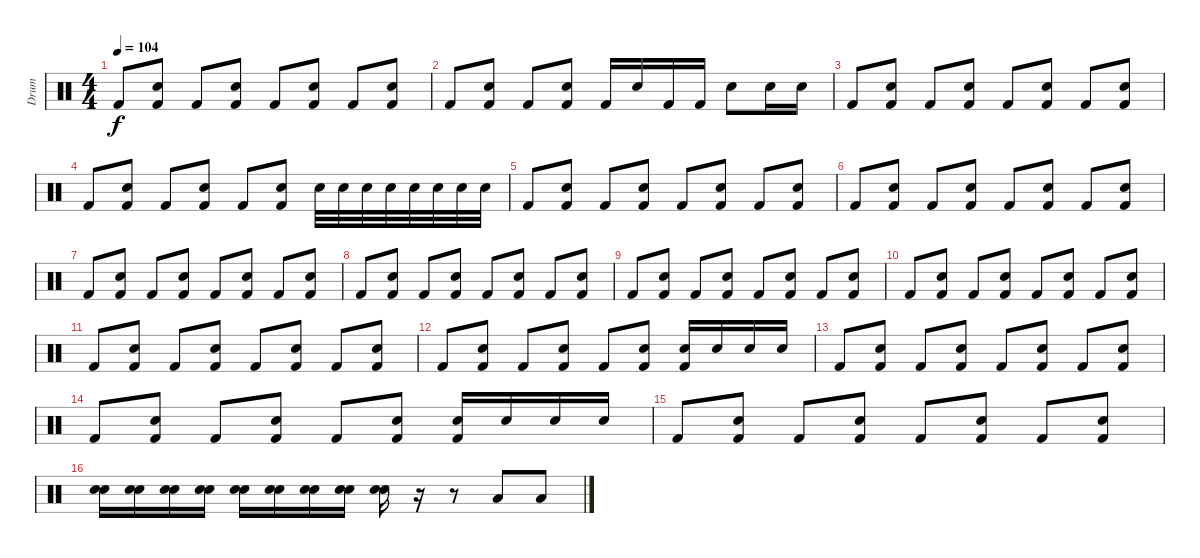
\track ("Drum" "Drum") {instrument percussion}
\staff {score}
\articulation defaults
\ts (4 4)
\tempo 104
\clef neutral
\ks c "Kick (hit) 2".8{dy f}
("Snare (hit) 2" "Kick (hit) 2").8 "Kick (hit) 2".8 ("Snare (hit) 2" "Kick (hit) 2").8 "Kick (hit) 2".8 ("Snare (hit) 2" "Kick (hit) 2").8 "Kick (hit) 2".8 ("Snare (hit) 2" "Kick (hit) 2").8 |
"Kick (hit) 2".8 ("Snare (hit) 2" "Kick (hit) 2").8 "Kick (hit) 2".8 ("Snare (hit) 2" "Kick (hit) 2").8 "Kick (hit) 2".16 "Snare (hit) 2".16 "Kick (hit) 2".16 "Kick (hit) 2".16 "Snare (hit) 2".8 "Snare (hit) 2".16 "Snare (hit) 2".16 |
"Kick (hit) 2".8 ("Snare (hit) 2" "Kick (hit) 2").8 "Kick (hit) 2".8 ("Snare (hit) 2" "Kick (hit) 2").8 "Kick (hit) 2".8 ("Snare (hit) 2" "Kick (hit) 2").8 "Kick (hit) 2".8 ("Snare (hit) 2" "Kick (hit) 2").8 |
"Kick (hit) 2".8 ("Snare (hit) 2" "Kick (hit) 2").8 "Kick (hit) 2".8 ("Snare (hit) 2" "Kick (hit) 2").8 "Kick (hit) 2".8 ("Snare (hit) 2" "Kick (hit) 2").8 "Snare (hit) 2".32 "Snare (hit) 2".32 "Snare (hit) 2".32 "Snare (hit) 2".32 "Snare (hit) 2".32 "Snare (hit) 2".32 "Snare (hit) 2".32 "Snare (hit) 2".32 |
"Kick (hit) 2".8 ("Snare (hit) 2" "Kick (hit) 2").8 "Kick (hit) 2".8 ("Snare (hit) 2" "Kick (hit) 2").8 "Kick (hit) 2".8 ("Snare (hit) 2" "Kick (hit) 2").8 "Kick (hit) 2".8 ("Snare (hit) 2" "Kick (hit) 2").8 |
"Kick (hit) 2".8 ("Snare (hit) 2" "Kick (hit) 2").8 "Kick (hit) 2".8 ("Snare (hit) 2" "Kick (hit) 2").8 "Kick (hit) 2".8 ("Snare (hit) 2" "Kick (hit) 2").8 "Kick (hit) 2".8 ("Snare (hit) 2" "Kick (hit) 2").8 |
"Kick (hit) 2".8 ("Snare (hit) 2" "Kick (hit) 2").8 "Kick (hit) 2".8 ("Snare (hit) 2" "Kick (hit) 2").8 "Kick (hit) 2".8 ("Snare (hit) 2" "Kick (hit) 2").8 "Kick (hit) 2".8 ("Snare (hit) 2" "Kick (hit) 2").8 |
"Kick (hit) 2".8 ("Snare (hit) 2" "Kick (hit) 2").8 "Kick (hit) 2".8 ("Snare (hit) 2" "Kick (hit) 2").8 "Kick (hit) 2".8 ("Snare (hit) 2" "Kick (hit) 2").8 "Kick (hit) 2".8 ("Snare (hit) 2" "Kick (hit) 2").8 |
"Kick (hit) 2".8 ("Snare (hit) 2" "Kick (hit) 2").8 "Kick (hit) 2".8 ("Snare (hit) 2" "Kick (hit) 2").8 "Kick (hit) 2".8 ("Snare (hit) 2" "Kick (hit) 2").8 "Kick (hit) 2".8 ("Snare (hit) 2" "Kick (hit) 2").8 |
"Kick (hit) 2".8 ("Snare (hit) 2" "Kick (hit) 2").8 "Kick (hit) 2".8 ("Snare (hit) 2" "Kick (hit) 2").8 "Kick (hit) 2".8 ("Snare (hit) 2" "Kick (hit) 2").8 "Kick (hit) 2".8 ("Snare (hit) 2" "Kick (hit) 2").8 |
"Kick (hit) 2".8 ("Snare (hit) 2" "Kick (hit) 2").8 "Kick (hit) 2".8 ("Snare (hit) 2" "Kick (hit) 2").8 "Kick (hit) 2".8 ("Snare (hit) 2" "Kick (hit) 2").8 "Kick (hit) 2".8 ("Snare (hit) 2" "Kick (hit) 2").8 |
"Kick (hit) 2".8 ("Snare (hit) 2" "Kick (hit) 2").8 "Kick (hit) 2".8 ("Snare (hit) 2" "Kick (hit) 2").8 "Kick (hit) 2".8 ("Snare (hit) 2" "Kick (hit) 2").8 ("Snare (hit) 2" "Kick (hit) 2").16 "Snare (hit) 2".16 "Snare (hit) 2".16 "Snare (hit) 2".16 |
"Kick (hit) 2".8 ("Snare (hit) 2" "Kick (hit) 2").8 "Kick (hit) 2".8 ("Snare (hit) 2" "Kick (hit) 2").8 "Kick (hit) 2".8 ("Snare (hit) 2" "Kick (hit) 2").8 "Kick (hit) 2".8 ("Snare (hit) 2" "Kick (hit) 2").8 |
"Kick (hit) 2".8 ("Snare (hit) 2" "Kick (hit) 2").8 "Kick (hit) 2".8 ("Snare (hit) 2" "Kick (hit) 2").8 "Kick (hit) 2".8 ("Snare (hit) 2" "Kick (hit) 2").8 ("Snare (hit) 2" "Kick (hit) 2").16 "Snare (hit) 2".16 "Snare (hit) 2".16 "Snare (hit) 2".16 |
"Kick (hit) 2".8 ("Snare (hit) 2" "Kick (hit) 2").8 "Kick (hit) 2".8 ("Snare (hit) 2" "Kick (hit) 2").8 "Kick (hit) 2".8 ("Snare (hit) 2" "Kick (hit) 2").8 "Kick (hit) 2".8 ("Snare (hit) 2" "Kick (hit) 2").8 |
("Snare (hit) 2" "Electric Snare (hit)").16 ("Snare (hit) 2" "Electric Snare (hit)").16 ("Snare (hit) 2" "Electric Snare (hit)").16 ("Snare (hit) 2" "Electric Snare (hit)").16 ("Snare (hit) 2" "Electric Snare (hit)").16 ("Snare (hit) 2" "Electric Snare (hit)").16 ("Snare (hit) 2" "Electric Snare (hit)").16 ("Snare (hit) 2" "Electric Snare (hit)").16 ("Snare (hit) 2" "Electric Snare (hit)").16 r.16 r.8 "Low Tom (hit)".8 "Low Floor Tom (hit)".8
